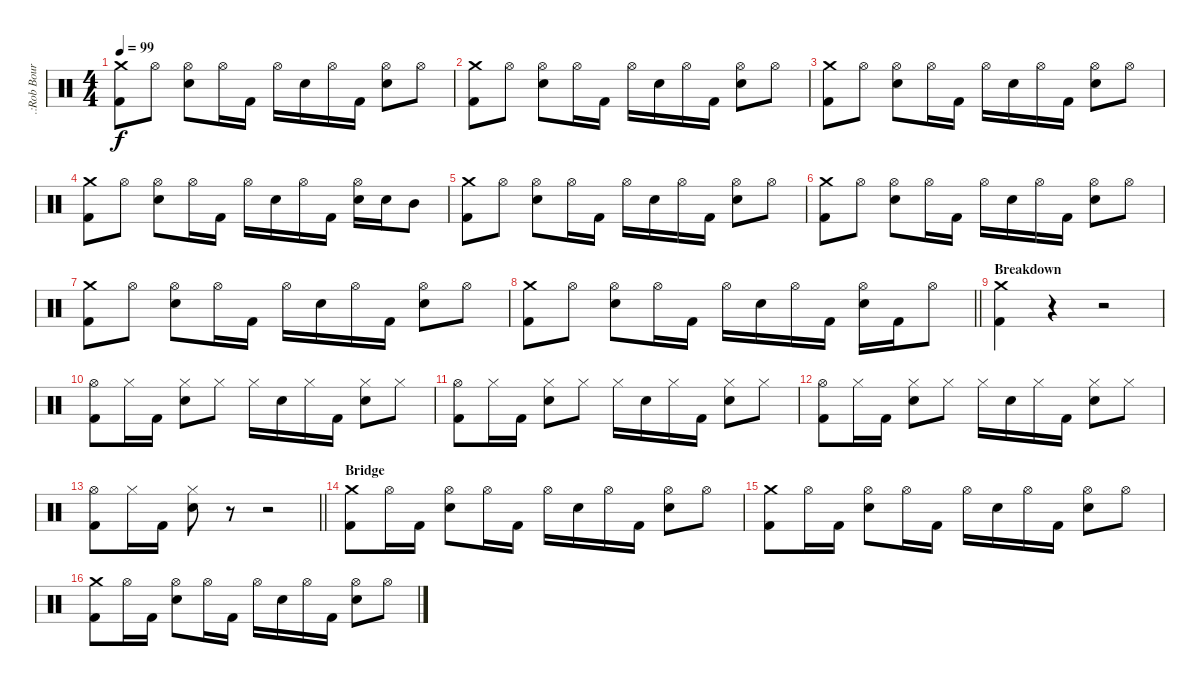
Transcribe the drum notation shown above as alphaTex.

\track (".:Rob Bourdon - Drums:." ".:Rob Bour") {instrument percussion}
\staff {score}
\articulation defaults
\ts (4 4)
\tempo 99
\clef neutral
\ks c
("Crash medium (hit)" "Kick (hit) 2").8{dy f} "Hi-Hat (open)".8 ("Hi-Hat (open)" "Electric Snare (hit)").8 "Hi-Hat (open)".16 "Kick (hit) 2".16 "Hi-Hat (open)".16 "Electric Snare (hit)".16 "Hi-Hat (open)".16 "Kick (hit) 2".16 ("Hi-Hat (open)" "Electric Snare (hit)").8 "Hi-Hat (open)".8 |
("Crash medium (hit)" "Kick (hit) 2").8 "Hi-Hat (open)".8 ("Hi-Hat (open)" "Electric Snare (hit)").8 "Hi-Hat (open)".16 "Kick (hit) 2".16 "Hi-Hat (open)".16 "Electric Snare (hit)".16 "Hi-Hat (open)".16 "Kick (hit) 2".16 ("Hi-Hat (open)" "Electric Snare (hit)").8 "Hi-Hat (open)".8 |
("Crash medium (hit)" "Kick (hit) 2").8 "Hi-Hat (open)".8 ("Hi-Hat (open)" "Electric Snare (hit)").8 "Hi-Hat (open)".16 "Kick (hit) 2".16 "Hi-Hat (open)".16 "Electric Snare (hit)".16 "Hi-Hat (open)".16 "Kick (hit) 2".16 ("Hi-Hat (open)" "Electric Snare (hit)").8 "Hi-Hat (open)".8 |
("Crash medium (hit)" "Kick (hit) 2").8 "Hi-Hat (open)".8 ("Hi-Hat (open)" "Electric Snare (hit)").8 "Hi-Hat (open)".16 "Kick (hit) 2".16 "Hi-Hat (open)".16 "Electric Snare (hit)".16 "Hi-Hat (open)".16 "Kick (hit) 2".16 ("Hi-Hat (open)" "Electric Snare (hit)").16 "Electric Snare (hit)".16 "Mid Tom (hit)".8 |
("Crash medium (hit)" "Kick (hit) 2").8 "Hi-Hat (open)".8 ("Hi-Hat (open)" "Electric Snare (hit)").8 "Hi-Hat (open)".16 "Kick (hit) 2".16 "Hi-Hat (open)".16 "Electric Snare (hit)".16 "Hi-Hat (open)".16 "Kick (hit) 2".16 ("Hi-Hat (open)" "Electric Snare (hit)").8 "Hi-Hat (open)".8 |
("Crash medium (hit)" "Kick (hit) 2").8 "Hi-Hat (open)".8 ("Hi-Hat (open)" "Electric Snare (hit)").8 "Hi-Hat (open)".16 "Kick (hit) 2".16 "Hi-Hat (open)".16 "Electric Snare (hit)".16 "Hi-Hat (open)".16 "Kick (hit) 2".16 ("Hi-Hat (open)" "Electric Snare (hit)").8 "Hi-Hat (open)".8 |
("Crash medium (hit)" "Kick (hit) 2").8 "Hi-Hat (open)".8 ("Hi-Hat (open)" "Electric Snare (hit)").8 "Hi-Hat (open)".16 "Kick (hit) 2".16 "Hi-Hat (open)".16 "Electric Snare (hit)".16 "Hi-Hat (open)".16 "Kick (hit) 2".16 ("Hi-Hat (open)" "Electric Snare (hit)").8 "Hi-Hat (open)".8 |
\barLineRight lightlight
("Crash medium (hit)" "Kick (hit) 2").8 "Hi-Hat (open)".8 ("Hi-Hat (open)" "Electric Snare (hit)").8 "Hi-Hat (open)".16 "Kick (hit) 2".16 "Hi-Hat (open)".16 "Electric Snare (hit)".16 "Hi-Hat (open)".16 "Kick (hit) 2".16 ("Hi-Hat (open)" "Electric Snare (hit)").16 "Kick (hit) 2".16 "Hi-Hat (open)".8 |
\section ("" "Breakdown")
("Crash medium (hit)" "Kick (hit) 2").4 r.4 r.2 |
("Hi-Hat (open)" "Kick (hit) 2").8 "Hi-Hat (closed)".16 "Kick (hit) 2".16 ("Hi-Hat (closed)" "Electric Snare (hit)").8 "Hi-Hat (closed)".8 "Hi-Hat (closed)".16 "Electric Snare (hit)".16 "Hi-Hat (closed)".16 "Kick (hit) 2".16 ("Hi-Hat (closed)" "Electric Snare (hit)").8 "Hi-Hat (closed)".8 |
("Hi-Hat (open)" "Kick (hit) 2").8 "Hi-Hat (closed)".16 "Kick (hit) 2".16 ("Hi-Hat (closed)" "Electric Snare (hit)").8 "Hi-Hat (closed)".8 "Hi-Hat (closed)".16 "Electric Snare (hit)".16 "Hi-Hat (closed)".16 "Kick (hit) 2".16 ("Hi-Hat (closed)" "Electric Snare (hit)").8 "Hi-Hat (closed)".8 |
("Hi-Hat (open)" "Kick (hit) 2").8 "Hi-Hat (closed)".16 "Kick (hit) 2".16 ("Hi-Hat (closed)" "Electric Snare (hit)").8 "Hi-Hat (closed)".8 "Hi-Hat (closed)".16 "Electric Snare (hit)".16 "Hi-Hat (closed)".16 "Kick (hit) 2".16 ("Hi-Hat (closed)" "Electric Snare (hit)").8 "Hi-Hat (closed)".8 |
\barLineRight lightlight
("Hi-Hat (open)" "Kick (hit) 2").8 "Hi-Hat (closed)".16 "Kick (hit) 2".16 ("Hi-Hat (closed)" "Electric Snare (hit)").8 r.8 r.2 |
\section ("" "Bridge")
("Crash medium (hit)" "Kick (hit) 2").8 "Hi-Hat (open)".16 "Kick (hit) 2".16 ("Hi-Hat (open)" "Electric Snare (hit)").8 "Hi-Hat (open)".16 "Kick (hit) 2".16 "Hi-Hat (open)".16 "Electric Snare (hit)".16 "Hi-Hat (open)".16 "Kick (hit) 2".16 ("Hi-Hat (open)" "Electric Snare (hit)").8 "Hi-Hat (open)".8 |
("Crash medium (hit)" "Kick (hit) 2").8 "Hi-Hat (open)".16 "Kick (hit) 2".16 ("Hi-Hat (open)" "Electric Snare (hit)").8 "Hi-Hat (open)".16 "Kick (hit) 2".16 "Hi-Hat (open)".16 "Electric Snare (hit)".16 "Hi-Hat (open)".16 "Kick (hit) 2".16 ("Hi-Hat (open)" "Electric Snare (hit)").8 "Hi-Hat (open)".8 |
("Crash medium (hit)" "Kick (hit) 2").8 "Hi-Hat (open)".16 "Kick (hit) 2".16 ("Hi-Hat (open)" "Electric Snare (hit)").8 "Hi-Hat (open)".16 "Kick (hit) 2".16 "Hi-Hat (open)".16 "Electric Snare (hit)".16 "Hi-Hat (open)".16 "Kick (hit) 2".16 ("Hi-Hat (open)" "Electric Snare (hit)").8 "Hi-Hat (open)".8
